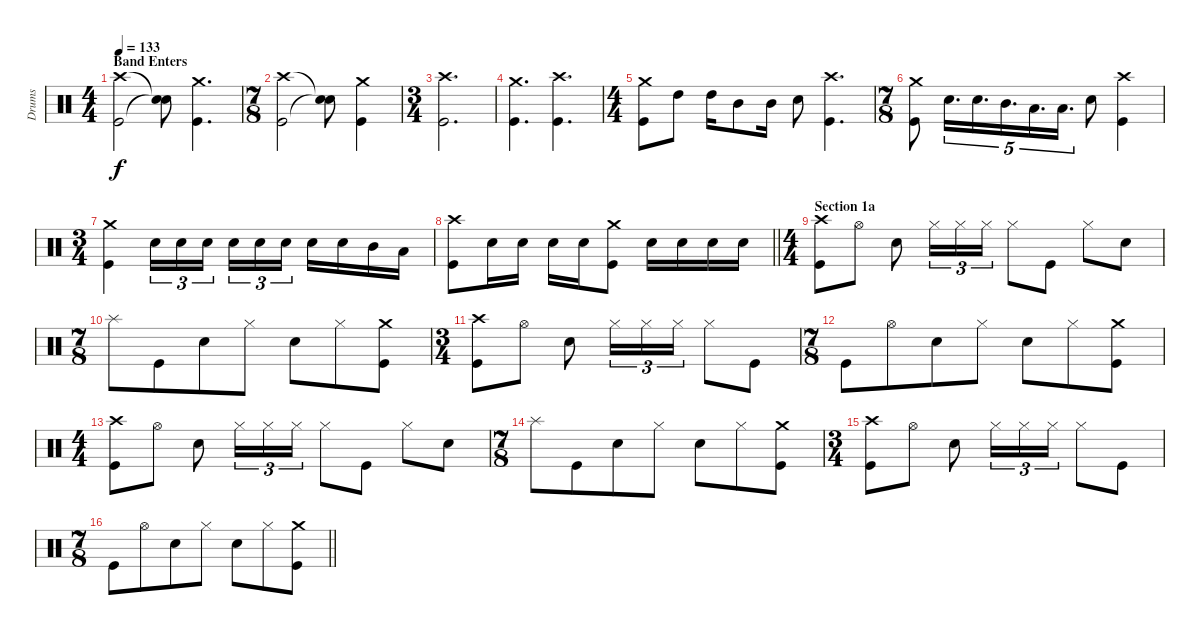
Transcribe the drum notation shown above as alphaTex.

\track ("Drums" "Drums") {instrument percussion}
\staff {score}
\articulation defaults
\ts (4 4)
\section ("" "Band Enters")
\tempo 133
\clef neutral
\ks c
("Crash high (hit)" "Kick (hit)").2{dy f} ("Snare (hit)"{t} "Snare (hit)"{t}).8 ("Crash medium (hit)" "Kick (hit)").4{d} |
\ts (7 8)
("Crash high (hit)" "Kick (hit)").2 ("Snare (hit)"{t} "Snare (hit)"{t}).8 ("Crash medium (hit)" "Kick (hit)").4 |
\ts (3 4)
("Crash high (hit)" "Kick (hit)").2{d} |
("Crash medium (hit)" "Kick (hit)").4{d} ("Crash high (hit)" "Kick (hit)").4{d} |
\ts (4 4)
("Crash medium (hit)" "Kick (hit)").8 "High Tom (hit)".8 "High Tom (hit)".16 "Mid Tom (hit)".8 "Mid Tom (hit)".16 "Snare (hit) 2".8 ("Crash high (hit)" "Kick (hit)").4{d} |
\ts (7 8)
("Crash medium (hit)" "Kick (hit)").8 "Snare (hit) 2".16{d tu (5 4)} "Snare (hit) 2".16{d tu (5 4)} "Mid Tom (hit)".16{d tu (5 4)} "Low Tom (hit)".16{d tu (5 4)} "Low Floor Tom (hit)".16{d tu (5 4)} "Snare (hit) 2".8 ("Crash high (hit)" "Kick (hit)").4 |
\ts (3 4)
("Crash medium (hit)" "Kick (hit)").4 "Snare (hit) 2".16{tu (3 2)} "Snare (hit) 2".16{tu (3 2)} "Snare (hit) 2".16{tu (3 2) beam splitsecondary} "Snare (hit) 2".16{tu (3 2)} "Snare (hit) 2".16{tu (3 2)} "Snare (hit) 2".16{tu (3 2)} "Snare (hit) 2".16 "Snare (hit) 2".16 "Mid Tom (hit)".16 "Low Tom (hit)".16 |
\barLineRight lightlight
("Crash high (hit)" "Kick (hit)").8 "Snare (hit) 2".16 "Snare (hit) 2".16 "Snare (hit) 2".16 "Snare (hit) 2".16 ("Crash medium (hit)" "Kick (hit)").8 "Snare (hit) 2".16 "Snare (hit) 2".16 "Snare (hit) 2".16 "Snare (hit) 2".16 |
\ts (4 4)
\section ("" "Section 1a")
("Crash high (hit)" "Kick (hit)").8 "Hi-Hat (open)".8 "Snare (hit) 2".8 "Hi-Hat (closed)".16{tu (3 2)} "Hi-Hat (closed)".16{tu (3 2)} "Hi-Hat (closed)".16{tu (3 2)} "Hi-Hat (closed)".8 "Kick (hit)".8 "Hi-Hat (closed)".8 "Snare (hit) 2".8 |
\ts (7 8)
"Splash (hit)".8 "Kick (hit)".8 "Snare (hit) 2".8 "Hi-Hat (closed)".8 "Snare (hit) 2".8 "Hi-Hat (closed)".8 ("Crash medium (hit)" "Kick (hit)").8 |
\ts (3 4)
("Crash high (hit)" "Kick (hit)").8 "Hi-Hat (open)".8 "Snare (hit) 2".8 "Hi-Hat (closed)".16{tu (3 2)} "Hi-Hat (closed)".16{tu (3 2)} "Hi-Hat (closed)".16{tu (3 2)} "Hi-Hat (closed)".8 "Kick (hit)".8 |
\ts (7 8)
"Kick (hit)".8 "Hi-Hat (open)".8 "Snare (hit) 2".8 "Hi-Hat (closed)".8 "Snare (hit) 2".8 "Hi-Hat (closed)".8 ("Crash medium (hit)" "Kick (hit)").8 |
\ts (4 4)
("Crash high (hit)" "Kick (hit)").8 "Hi-Hat (open)".8 "Snare (hit) 2".8 "Hi-Hat (closed)".16{tu (3 2)} "Hi-Hat (closed)".16{tu (3 2)} "Hi-Hat (closed)".16{tu (3 2)} "Hi-Hat (closed)".8 "Kick (hit)".8 "Hi-Hat (closed)".8 "Snare (hit) 2".8 |
\ts (7 8)
"Splash (hit)".8 "Kick (hit)".8 "Snare (hit) 2".8 "Hi-Hat (closed)".8 "Snare (hit) 2".8 "Hi-Hat (closed)".8 ("Crash medium (hit)" "Kick (hit)").8 |
\ts (3 4)
("Crash high (hit)" "Kick (hit)").8 "Hi-Hat (open)".8 "Snare (hit) 2".8 "Hi-Hat (closed)".16{tu (3 2)} "Hi-Hat (closed)".16{tu (3 2)} "Hi-Hat (closed)".16{tu (3 2)} "Hi-Hat (closed)".8 "Kick (hit)".8 |
\ts (7 8)
\barLineRight lightlight "Kick (hit)".8 "Hi-Hat (open)".8 "Snare (hit) 2".8 "Hi-Hat (closed)".8 "Snare (hit) 2".8 "Hi-Hat (closed)".8
("Crash medium (hit)" "Kick (hit)").8
